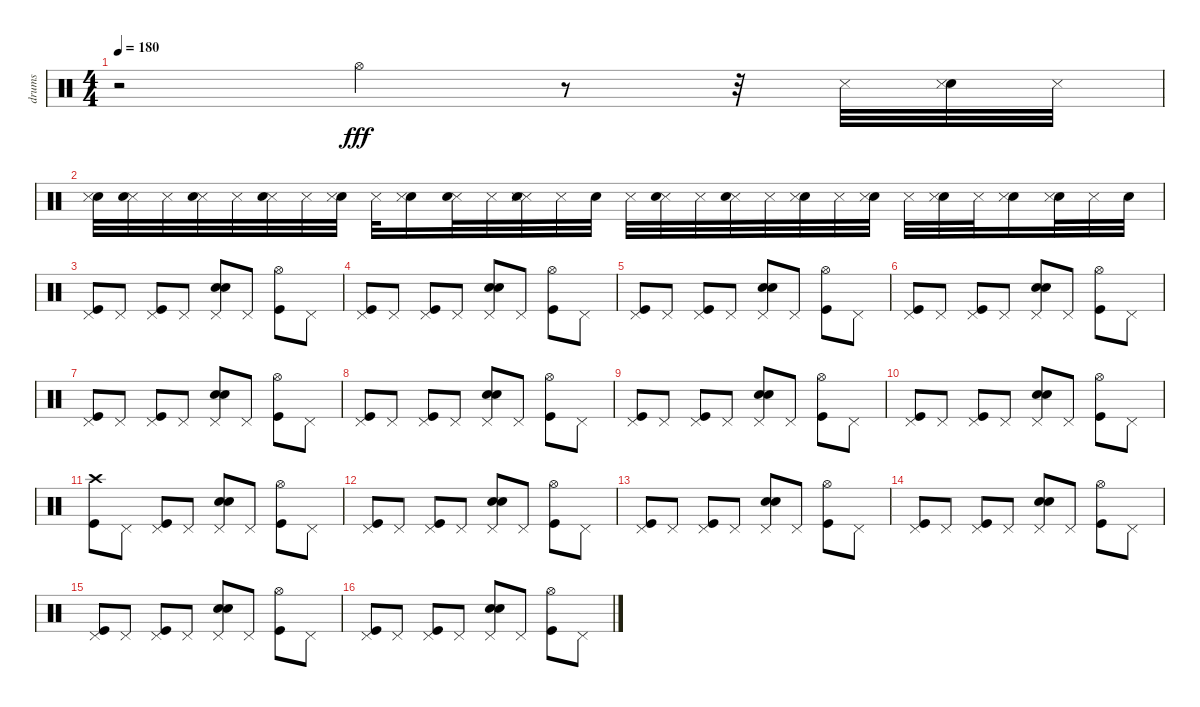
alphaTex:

\track ("drums" "drums") {instrument percussion}
\staff {score}
\articulation defaults
\ts (4 4)
\tempo 180
\clef neutral
\ks c
r.2{dy fff} "Hi-Hat (open)".4 r.8 r.32 "Metronome (hit)".32 ("Snare (hit) 2" "Metronome (hit)").32 "Metronome (hit)".32 |
("Snare (hit) 2" "Metronome (hit)").32 ("Metronome (hit)" "Snare (hit) 2").32 "Metronome (hit)".32 ("Metronome (hit)" "Snare (hit) 2").32 "Metronome (hit)".32 ("Metronome (hit)" "Snare (hit) 2").32 "Metronome (hit)".32 ("Snare (hit) 2" "Metronome (hit)").32 "Metronome (hit)".32 ("Snare (hit) 2" "Metronome (hit)").16 ("Metronome (hit)" "Snare (hit) 2").32 "Metronome (hit)".32 ("Metronome (hit)" "Snare (hit) 2" "Metronome (hit)").32 "Metronome (hit)".32 "Snare (hit) 2".32 "Metronome (hit)".32 ("Metronome (hit)" "Snare (hit) 2").32 "Metronome (hit)".32 ("Metronome (hit)" "Snare (hit) 2").32 "Metronome (hit)".32 ("Snare (hit) 2" "Metronome (hit)").32 "Metronome (hit)".32 ("Snare (hit) 2" "Metronome (hit)").32 "Metronome (hit)".32 ("Snare (hit) 2" "Metronome (hit)").32 "Metronome (hit)".32 ("Snare (hit) 2" "Metronome (hit)").16 ("Snare (hit) 2" "Metronome (hit)").32 "Metronome (hit)".32 "Snare (hit) 2".32 |
("Kick (hit)" "Pedal Hi-Hat (hit)").8 "Pedal Hi-Hat (hit)".8 ("Pedal Hi-Hat (hit)" "Kick (hit)").8 "Pedal Hi-Hat (hit)".8 ("Pedal Hi-Hat (hit)" "Electric Snare (hit)" "Snare (hit) 2").8 "Pedal Hi-Hat (hit)".8 ("Hi-Hat (open)" "Kick (hit)").8 "Pedal Hi-Hat (hit)".8 |
("Kick (hit)" "Pedal Hi-Hat (hit)").8 "Pedal Hi-Hat (hit)".8 ("Kick (hit)" "Pedal Hi-Hat (hit)").8 "Pedal Hi-Hat (hit)".8 ("Snare (hit) 2" "Electric Snare (hit)" "Pedal Hi-Hat (hit)").8 "Pedal Hi-Hat (hit)".8 ("Hi-Hat (open)" "Kick (hit)").8 "Pedal Hi-Hat (hit)".8 |
("Pedal Hi-Hat (hit)" "Kick (hit)").8 "Pedal Hi-Hat (hit)".8 ("Pedal Hi-Hat (hit)" "Kick (hit)").8 "Pedal Hi-Hat (hit)".8 ("Pedal Hi-Hat (hit)" "Electric Snare (hit)" "Snare (hit) 2").8 "Pedal Hi-Hat (hit)".8 ("Hi-Hat (open)" "Kick (hit)").8 "Pedal Hi-Hat (hit)".8 |
("Kick (hit)" "Pedal Hi-Hat (hit)").8 "Pedal Hi-Hat (hit)".8 ("Kick (hit)" "Pedal Hi-Hat (hit)").8 "Pedal Hi-Hat (hit)".8 ("Snare (hit) 2" "Electric Snare (hit)" "Pedal Hi-Hat (hit)").8 "Pedal Hi-Hat (hit)".8 ("Hi-Hat (open)" "Kick (hit)").8 "Pedal Hi-Hat (hit)".8 |
("Pedal Hi-Hat (hit)" "Kick (hit)").8 "Pedal Hi-Hat (hit)".8 ("Pedal Hi-Hat (hit)" "Kick (hit)").8 "Pedal Hi-Hat (hit)".8 ("Pedal Hi-Hat (hit)" "Electric Snare (hit)" "Snare (hit) 2").8 "Pedal Hi-Hat (hit)".8 ("Hi-Hat (open)" "Kick (hit)").8 "Pedal Hi-Hat (hit)".8 |
("Kick (hit)" "Pedal Hi-Hat (hit)").8 "Pedal Hi-Hat (hit)".8 ("Kick (hit)" "Pedal Hi-Hat (hit)").8 "Pedal Hi-Hat (hit)".8 ("Snare (hit) 2" "Electric Snare (hit)" "Pedal Hi-Hat (hit)").8 "Pedal Hi-Hat (hit)".8 ("Hi-Hat (open)" "Kick (hit)").8 "Pedal Hi-Hat (hit)".8 |
("Pedal Hi-Hat (hit)" "Kick (hit)").8 "Pedal Hi-Hat (hit)".8 ("Pedal Hi-Hat (hit)" "Kick (hit)").8 "Pedal Hi-Hat (hit)".8 ("Pedal Hi-Hat (hit)" "Electric Snare (hit)" "Snare (hit) 2").8 "Pedal Hi-Hat (hit)".8 ("Hi-Hat (open)" "Kick (hit)").8 "Pedal Hi-Hat (hit)".8 |
("Kick (hit)" "Pedal Hi-Hat (hit)").8 "Pedal Hi-Hat (hit)".8 ("Kick (hit)" "Pedal Hi-Hat (hit)").8 "Pedal Hi-Hat (hit)".8 ("Snare (hit) 2" "Electric Snare (hit)" "Pedal Hi-Hat (hit)").8 "Pedal Hi-Hat (hit)".8 ("Hi-Hat (open)" "Kick (hit)").8 "Pedal Hi-Hat (hit)".8 |
("Kick (hit)" "Crash high (hit)").8 "Pedal Hi-Hat (hit)".8 ("Pedal Hi-Hat (hit)" "Kick (hit)").8 "Pedal Hi-Hat (hit)".8 ("Pedal Hi-Hat (hit)" "Electric Snare (hit)" "Snare (hit) 2").8 "Pedal Hi-Hat (hit)".8 ("Hi-Hat (open)" "Kick (hit)").8 "Pedal Hi-Hat (hit)".8 |
("Kick (hit)" "Pedal Hi-Hat (hit)").8 "Pedal Hi-Hat (hit)".8 ("Kick (hit)" "Pedal Hi-Hat (hit)").8 "Pedal Hi-Hat (hit)".8 ("Snare (hit) 2" "Electric Snare (hit)" "Pedal Hi-Hat (hit)").8 "Pedal Hi-Hat (hit)".8 ("Hi-Hat (open)" "Kick (hit)").8 "Pedal Hi-Hat (hit)".8 |
("Pedal Hi-Hat (hit)" "Kick (hit)").8 "Pedal Hi-Hat (hit)".8 ("Pedal Hi-Hat (hit)" "Kick (hit)").8 "Pedal Hi-Hat (hit)".8 ("Pedal Hi-Hat (hit)" "Electric Snare (hit)" "Snare (hit) 2").8 "Pedal Hi-Hat (hit)".8 ("Hi-Hat (open)" "Kick (hit)").8 "Pedal Hi-Hat (hit)".8 |
("Kick (hit)" "Pedal Hi-Hat (hit)").8 "Pedal Hi-Hat (hit)".8 ("Kick (hit)" "Pedal Hi-Hat (hit)").8 "Pedal Hi-Hat (hit)".8 ("Snare (hit) 2" "Electric Snare (hit)" "Pedal Hi-Hat (hit)").8 "Pedal Hi-Hat (hit)".8 ("Hi-Hat (open)" "Kick (hit)").8 "Pedal Hi-Hat (hit)".8 |
("Pedal Hi-Hat (hit)" "Kick (hit)").8 "Pedal Hi-Hat (hit)".8 ("Pedal Hi-Hat (hit)" "Kick (hit)").8 "Pedal Hi-Hat (hit)".8 ("Pedal Hi-Hat (hit)" "Electric Snare (hit)" "Snare (hit) 2").8 "Pedal Hi-Hat (hit)".8 ("Hi-Hat (open)" "Kick (hit)").8 "Pedal Hi-Hat (hit)".8 |
("Kick (hit)" "Pedal Hi-Hat (hit)").8 "Pedal Hi-Hat (hit)".8 ("Kick (hit)" "Pedal Hi-Hat (hit)").8 "Pedal Hi-Hat (hit)".8 ("Snare (hit) 2" "Electric Snare (hit)" "Pedal Hi-Hat (hit)").8 "Pedal Hi-Hat (hit)".8 ("Hi-Hat (open)" "Kick (hit)").8 "Pedal Hi-Hat (hit)".8
